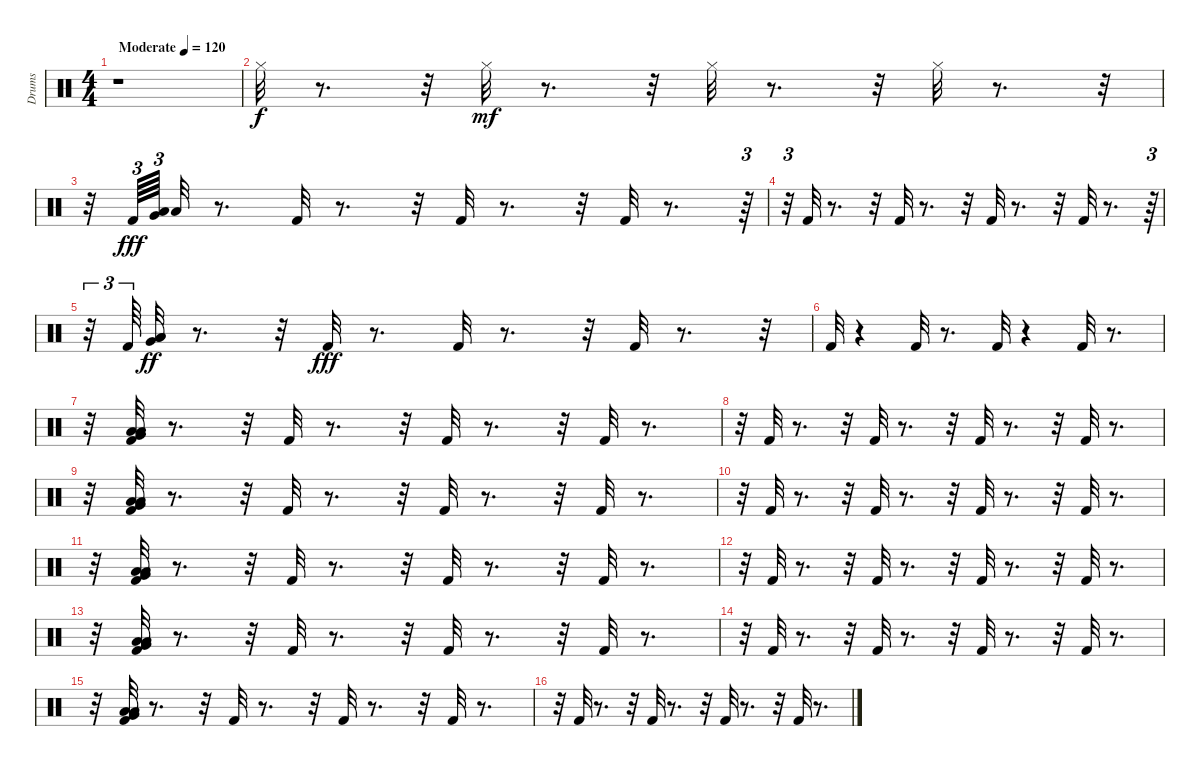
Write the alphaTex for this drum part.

\track ("Drums" "Drums") {instrument percussion}
\staff {score}
\articulation defaults
\ts (4 4)
\tempo (120 "Moderate")
\clef neutral
\ks c
r.1{dy f} |
"Hi-Hat (closed)".32 r.8{d} r.32 "Hi-Hat (closed)".32{dy mf} r.8{d} r.32 "Hi-Hat (closed)".32 r.8{d} r.32 "Hi-Hat (closed)".32 r.8{d} r.32 |
r.32 "Kick (hit) 2".64{tu (3 2) dy fff} ("Low Tom (hit)" "Very Low Tom (hit)").64{tu (3 2) beam splitsecondary} "Low Floor Tom (hit)".32 r.8{d} "Kick (hit) 2".32 r.8{d} r.32 "Kick (hit) 2".32 r.8{d} r.32 "Kick (hit) 2".32 r.8{d} r.64{tu (3 2)} |
r.32{tu (3 2)} "Kick (hit) 2".32 r.8{d} r.32 "Kick (hit) 2".32 r.8{d} r.32 "Kick (hit) 2".32 r.8{d} r.32 "Kick (hit) 2".32 r.8{d} r.64{tu (3 2)} |
r.32{tu (3 2)} "Kick (hit) 2".64{tu (3 2)} ("Very Low Tom (hit)" "Low Tom (hit)" "Low Floor Tom (hit)").32{dy ff} r.8{d} r.32 "Kick (hit) 2".32{dy fff} r.8{d} "Kick (hit) 2".32 r.8{d} r.32 "Kick (hit) 2".32 r.8{d} r.32 |
"Kick (hit) 2".32 r.4 "Kick (hit) 2".32 r.8{d} "Kick (hit) 2".32 r.4 "Kick (hit) 2".32 r.8{d} |
r.32 ("Very Low Tom (hit)" "Low Tom (hit)" "Low Floor Tom (hit)" "Kick (hit) 2").32 r.8{d} r.32 "Kick (hit) 2".32 r.8{d} r.32 "Kick (hit) 2".32 r.8{d} r.32 "Kick (hit) 2".32 r.8{d} |
r.32 "Kick (hit) 2".32 r.8{d} r.32 "Kick (hit) 2".32 r.8{d} r.32 "Kick (hit) 2".32 r.8{d} r.32 "Kick (hit) 2".32 r.8{d} |
r.32 ("Low Tom (hit)" "Low Floor Tom (hit)" "Kick (hit) 2" "Very Low Tom (hit)").32 r.8{d} r.32 "Kick (hit) 2".32 r.8{d} r.32 "Kick (hit) 2".32 r.8{d} r.32 "Kick (hit) 2".32 r.8{d} |
r.32 "Kick (hit) 2".32 r.8{d} r.32 "Kick (hit) 2".32 r.8{d} r.32 "Kick (hit) 2".32 r.8{d} r.32 "Kick (hit) 2".32 r.8{d} |
r.32 ("Kick (hit) 2" "Low Floor Tom (hit)" "Very Low Tom (hit)" "Low Tom (hit)").32 r.8{d} r.32 "Kick (hit) 2".32 r.8{d} r.32 "Kick (hit) 2".32 r.8{d} r.32 "Kick (hit) 2".32 r.8{d} |
r.32 "Kick (hit) 2".32 r.8{d} r.32 "Kick (hit) 2".32 r.8{d} r.32 "Kick (hit) 2".32 r.8{d} r.32 "Kick (hit) 2".32 r.8{d} |
r.32 ("Low Tom (hit)" "Low Floor Tom (hit)" "Kick (hit) 2" "Very Low Tom (hit)").32 r.8{d} r.32 "Kick (hit) 2".32 r.8{d} r.32 "Kick (hit) 2".32 r.8{d} r.32 "Kick (hit) 2".32 r.8{d} |
r.32 "Kick (hit) 2".32 r.8{d} r.32 "Kick (hit) 2".32 r.8{d} r.32 "Kick (hit) 2".32 r.8{d} r.32 "Kick (hit) 2".32 r.8{d} |
r.32 ("Low Tom (hit)" "Kick (hit) 2" "Low Floor Tom (hit)" "Very Low Tom (hit)").32 r.8{d} r.32 "Kick (hit) 2".32 r.8{d} r.32 "Kick (hit) 2".32 r.8{d} r.32 "Kick (hit) 2".32 r.8{d} |
r.32 "Kick (hit) 2".32 r.8{d} r.32 "Kick (hit) 2".32 r.8{d} r.32 "Kick (hit) 2".32 r.8{d} r.32 "Kick (hit) 2".32 r.8{d}
